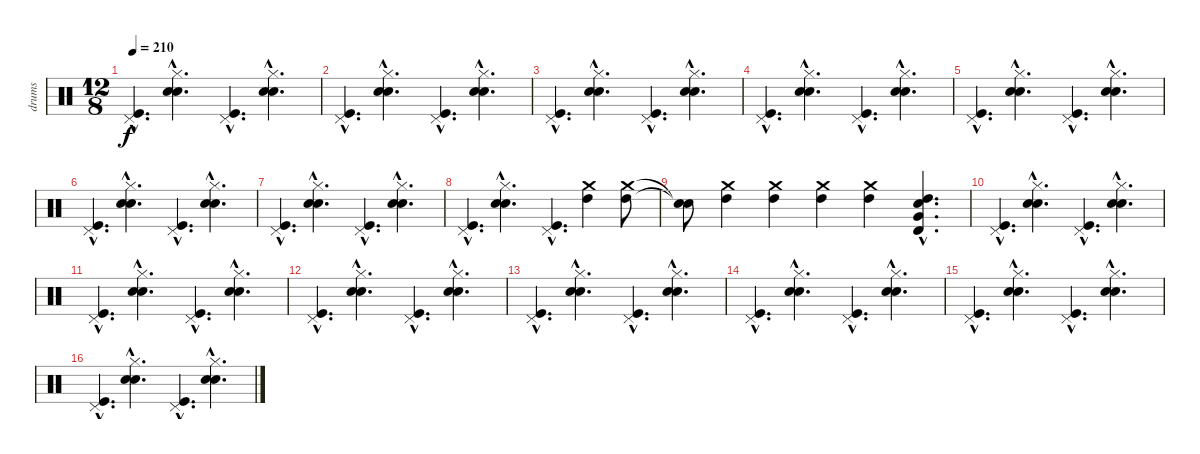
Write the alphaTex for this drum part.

\track ("drums" "drums") {instrument percussion}
\staff {score}
\articulation defaults
\ts (12 8)
\tempo 210
\clef neutral
\ks c
("Pedal Hi-Hat (hit)"{hac} "Kick (hit)"{hac}).4{d dy f} ("Electric Snare (hit)"{hac} "Snare (hit) 2"{hac} "Hi-Hat (closed)"{hac}).4{d} ("Pedal Hi-Hat (hit)"{hac} "Kick (hit)"{hac}).4{d} ("Electric Snare (hit)"{hac} "Snare (hit) 2"{hac} "Hi-Hat (closed)"{hac}).4{d} |
("Pedal Hi-Hat (hit)"{hac} "Kick (hit)"{hac}).4{d} ("Electric Snare (hit)"{hac} "Snare (hit) 2"{hac} "Hi-Hat (closed)"{hac}).4{d} ("Pedal Hi-Hat (hit)"{hac} "Kick (hit)"{hac}).4{d} ("Electric Snare (hit)"{hac} "Snare (hit) 2"{hac} "Hi-Hat (closed)"{hac}).4{d} |
("Pedal Hi-Hat (hit)"{hac} "Kick (hit)"{hac}).4{d} ("Electric Snare (hit)"{hac} "Snare (hit) 2"{hac} "Hi-Hat (closed)"{hac}).4{d} ("Pedal Hi-Hat (hit)"{hac} "Kick (hit)"{hac}).4{d} ("Electric Snare (hit)"{hac} "Snare (hit) 2"{hac} "Hi-Hat (closed)"{hac}).4{d} |
("Pedal Hi-Hat (hit)"{hac} "Kick (hit)"{hac}).4{d} ("Electric Snare (hit)"{hac} "Snare (hit) 2"{hac} "Hi-Hat (closed)"{hac}).4{d} ("Pedal Hi-Hat (hit)"{hac} "Kick (hit)"{hac}).4{d} ("Electric Snare (hit)"{hac} "Snare (hit) 2"{hac} "Hi-Hat (closed)"{hac}).4{d} |
("Pedal Hi-Hat (hit)"{hac} "Kick (hit)"{hac}).4{d} ("Electric Snare (hit)"{hac} "Snare (hit) 2"{hac} "Hi-Hat (closed)"{hac}).4{d} ("Pedal Hi-Hat (hit)"{hac} "Kick (hit)"{hac}).4{d} ("Electric Snare (hit)"{hac} "Snare (hit) 2"{hac} "Hi-Hat (closed)"{hac}).4{d} |
("Pedal Hi-Hat (hit)"{hac} "Kick (hit)"{hac}).4{d} ("Electric Snare (hit)"{hac} "Snare (hit) 2"{hac} "Hi-Hat (closed)"{hac}).4{d} ("Pedal Hi-Hat (hit)"{hac} "Kick (hit)"{hac}).4{d} ("Electric Snare (hit)"{hac} "Snare (hit) 2"{hac} "Hi-Hat (closed)"{hac}).4{d} |
("Pedal Hi-Hat (hit)"{hac} "Kick (hit)"{hac}).4{d} ("Electric Snare (hit)"{hac} "Snare (hit) 2"{hac} "Hi-Hat (closed)"{hac}).4{d} ("Pedal Hi-Hat (hit)"{hac} "Kick (hit)"{hac}).4{d} ("Electric Snare (hit)"{hac} "Snare (hit) 2"{hac} "Hi-Hat (closed)"{hac}).4{d} |
("Pedal Hi-Hat (hit)"{hac} "Kick (hit)"{hac}).4{d} ("Electric Snare (hit)"{hac} "Snare (hit) 2"{hac} "Hi-Hat (closed)"{hac}).4{d} ("Pedal Hi-Hat (hit)"{hac} "Kick (hit)"{hac}).4{d} ("Crash medium (hit)" "High Tom (hit)").4 ("Crash medium (hit)" "High Tom (hit)").8 |
("Snare (hit)"{t} "Snare (hit)"{t}).8 ("Crash medium (hit)" "High Tom (hit)").4 ("Crash medium (hit)" "High Tom (hit)").4 ("Crash medium (hit)" "High Tom (hit)").4 ("Crash medium (hit)" "High Tom (hit)").4 ("Timbale high (hit)"{hac} "High Tom (hit)"{hac} "Very Low Tom (hit)"{hac} "Electric Snare (hit)"{hac}).4{d} |
("Pedal Hi-Hat (hit)"{hac} "Kick (hit)"{hac}).4{d} ("Electric Snare (hit)"{hac} "Snare (hit) 2"{hac} "Hi-Hat (closed)"{hac}).4{d} ("Pedal Hi-Hat (hit)"{hac} "Kick (hit)"{hac}).4{d} ("Electric Snare (hit)"{hac} "Snare (hit) 2"{hac} "Hi-Hat (closed)"{hac}).4{d} |
("Pedal Hi-Hat (hit)"{hac} "Kick (hit)"{hac}).4{d} ("Electric Snare (hit)"{hac} "Snare (hit) 2"{hac} "Hi-Hat (closed)"{hac}).4{d} ("Pedal Hi-Hat (hit)"{hac} "Kick (hit)"{hac}).4{d} ("Electric Snare (hit)"{hac} "Snare (hit) 2"{hac} "Hi-Hat (closed)"{hac}).4{d} |
("Pedal Hi-Hat (hit)"{hac} "Kick (hit)"{hac}).4{d} ("Electric Snare (hit)"{hac} "Snare (hit) 2"{hac} "Hi-Hat (closed)"{hac}).4{d} ("Pedal Hi-Hat (hit)"{hac} "Kick (hit)"{hac}).4{d} ("Electric Snare (hit)"{hac} "Snare (hit) 2"{hac} "Hi-Hat (closed)"{hac}).4{d} |
("Pedal Hi-Hat (hit)"{hac} "Kick (hit)"{hac}).4{d} ("Electric Snare (hit)"{hac} "Snare (hit) 2"{hac} "Hi-Hat (closed)"{hac}).4{d} ("Pedal Hi-Hat (hit)"{hac} "Kick (hit)"{hac}).4{d} ("Electric Snare (hit)"{hac} "Snare (hit) 2"{hac} "Hi-Hat (closed)"{hac}).4{d} |
("Pedal Hi-Hat (hit)"{hac} "Kick (hit)"{hac}).4{d} ("Electric Snare (hit)"{hac} "Snare (hit) 2"{hac} "Hi-Hat (closed)"{hac}).4{d} ("Pedal Hi-Hat (hit)"{hac} "Kick (hit)"{hac}).4{d} ("Electric Snare (hit)"{hac} "Snare (hit) 2"{hac} "Hi-Hat (closed)"{hac}).4{d} |
("Pedal Hi-Hat (hit)"{hac} "Kick (hit)"{hac}).4{d} ("Electric Snare (hit)"{hac} "Snare (hit) 2"{hac} "Hi-Hat (closed)"{hac}).4{d} ("Pedal Hi-Hat (hit)"{hac} "Kick (hit)"{hac}).4{d} ("Electric Snare (hit)"{hac} "Snare (hit) 2"{hac} "Hi-Hat (closed)"{hac}).4{d} |
("Pedal Hi-Hat (hit)"{hac} "Kick (hit)"{hac}).4{d} ("Electric Snare (hit)"{hac} "Snare (hit) 2"{hac} "Hi-Hat (closed)"{hac}).4{d} ("Pedal Hi-Hat (hit)"{hac} "Kick (hit)"{hac}).4{d} ("Electric Snare (hit)"{hac} "Snare (hit) 2"{hac} "Hi-Hat (closed)"{hac}).4{d}
